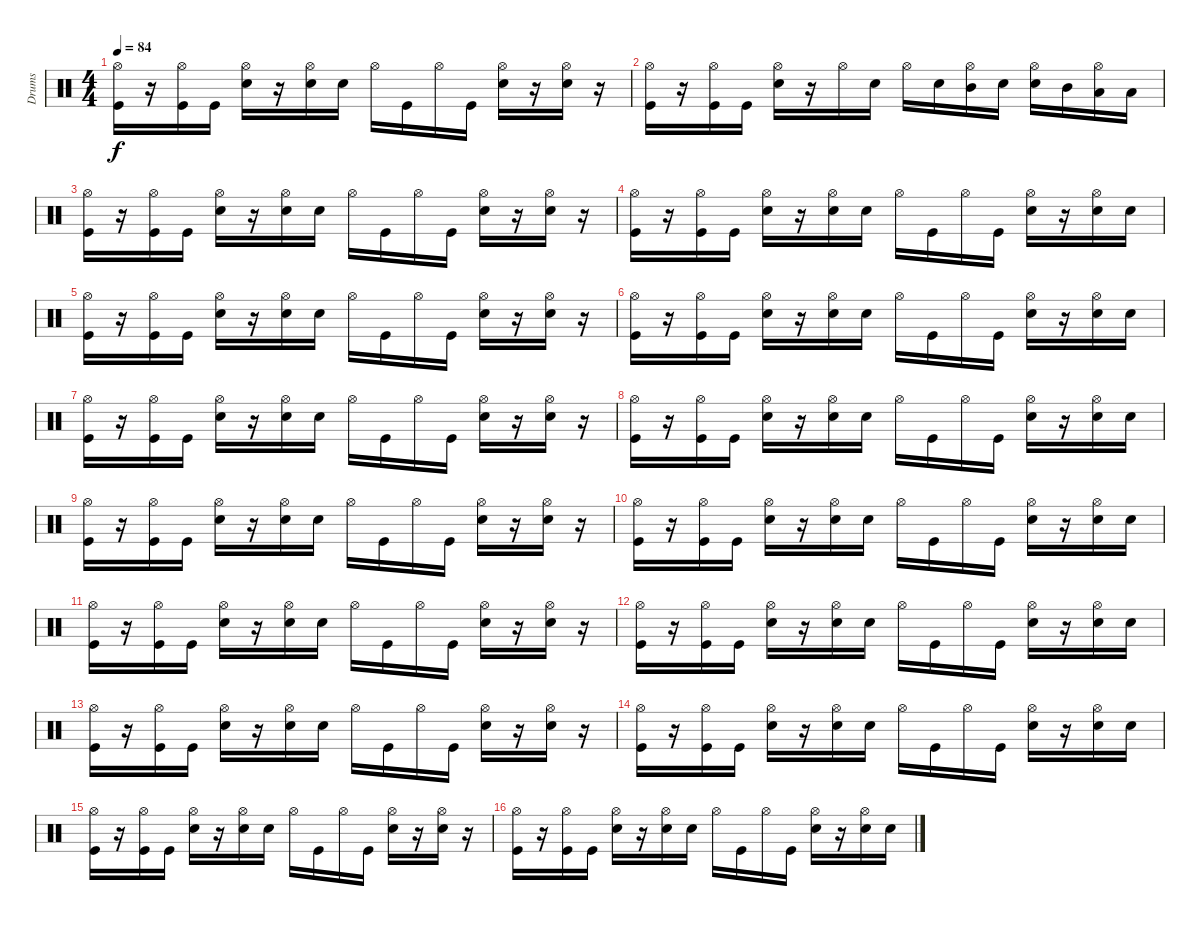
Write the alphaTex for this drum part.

\track ("Drums" "Drums") {instrument percussion}
\staff {score}
\articulation defaults
\ts (4 4)
\tempo 84
\clef neutral
\ks c
("Hi-Hat (open)" "Kick (hit)").16{dy f} r.16 ("Hi-Hat (open)" "Kick (hit)").16 "Kick (hit)".16 ("Hi-Hat (open)" "Snare (hit) 2").16 r.16 ("Hi-Hat (open)" "Snare (hit) 2").16 "Snare (hit) 2".16 "Hi-Hat (open)".16 "Kick (hit)".16 "Hi-Hat (open)".16 "Kick (hit)".16 ("Hi-Hat (open)" "Snare (hit) 2").16 r.16 ("Hi-Hat (open)" "Snare (hit) 2").16 r.16 |
("Hi-Hat (open)" "Kick (hit)").16 r.16 ("Hi-Hat (open)" "Kick (hit)").16 "Kick (hit)".16 ("Hi-Hat (open)" "Snare (hit) 2").16 r.16 "Hi-Hat (open)".16 "Snare (hit) 2".16 "Hi-Hat (open)".16 "Snare (hit) 2".16 ("Hi-Hat (open)" "Mid Tom (hit)").16 "Snare (hit) 2".16 ("Hi-Hat (open)" "Snare (hit) 2").16 "Mid Tom (hit)".16 ("Hi-Hat (open)" "Low Tom (hit)").16 "Low Floor Tom (hit)".16 |
("Hi-Hat (open)" "Kick (hit)").16 r.16 ("Hi-Hat (open)" "Kick (hit)").16 "Kick (hit)".16 ("Hi-Hat (open)" "Snare (hit) 2").16 r.16 ("Hi-Hat (open)" "Snare (hit) 2").16 "Snare (hit) 2".16 "Hi-Hat (open)".16 "Kick (hit)".16 "Hi-Hat (open)".16 "Kick (hit)".16 ("Hi-Hat (open)" "Snare (hit) 2").16 r.16 ("Hi-Hat (open)" "Snare (hit) 2").16 r.16 |
("Hi-Hat (open)" "Kick (hit)").16 r.16 ("Hi-Hat (open)" "Kick (hit)").16 "Kick (hit)".16 ("Hi-Hat (open)" "Snare (hit) 2").16 r.16 ("Hi-Hat (open)" "Snare (hit) 2").16 "Snare (hit) 2".16 "Hi-Hat (open)".16 "Kick (hit)".16 "Hi-Hat (open)".16 "Kick (hit)".16 ("Hi-Hat (open)" "Snare (hit) 2").16 r.16 ("Hi-Hat (open)" "Snare (hit) 2").16 "Snare (hit) 2".16 |
("Hi-Hat (open)" "Kick (hit)").16 r.16 ("Hi-Hat (open)" "Kick (hit)").16 "Kick (hit)".16 ("Hi-Hat (open)" "Snare (hit) 2").16 r.16 ("Hi-Hat (open)" "Snare (hit) 2").16 "Snare (hit) 2".16 "Hi-Hat (open)".16 "Kick (hit)".16 "Hi-Hat (open)".16 "Kick (hit)".16 ("Hi-Hat (open)" "Snare (hit) 2").16 r.16 ("Hi-Hat (open)" "Snare (hit) 2").16 r.16 |
("Hi-Hat (open)" "Kick (hit)").16 r.16 ("Hi-Hat (open)" "Kick (hit)").16 "Kick (hit)".16 ("Hi-Hat (open)" "Snare (hit) 2").16 r.16 ("Hi-Hat (open)" "Snare (hit) 2").16 "Snare (hit) 2".16 "Hi-Hat (open)".16 "Kick (hit)".16 "Hi-Hat (open)".16 "Kick (hit)".16 ("Hi-Hat (open)" "Snare (hit) 2").16 r.16 ("Hi-Hat (open)" "Snare (hit) 2").16 "Snare (hit) 2".16 |
("Hi-Hat (open)" "Kick (hit)").16 r.16 ("Hi-Hat (open)" "Kick (hit)").16 "Kick (hit)".16 ("Hi-Hat (open)" "Snare (hit) 2").16 r.16 ("Hi-Hat (open)" "Snare (hit) 2").16 "Snare (hit) 2".16 "Hi-Hat (open)".16 "Kick (hit)".16 "Hi-Hat (open)".16 "Kick (hit)".16 ("Hi-Hat (open)" "Snare (hit) 2").16 r.16 ("Hi-Hat (open)" "Snare (hit) 2").16 r.16 |
("Hi-Hat (open)" "Kick (hit)").16 r.16 ("Hi-Hat (open)" "Kick (hit)").16 "Kick (hit)".16 ("Hi-Hat (open)" "Snare (hit) 2").16 r.16 ("Hi-Hat (open)" "Snare (hit) 2").16 "Snare (hit) 2".16 "Hi-Hat (open)".16 "Kick (hit)".16 "Hi-Hat (open)".16 "Kick (hit)".16 ("Hi-Hat (open)" "Snare (hit) 2").16 r.16 ("Hi-Hat (open)" "Snare (hit) 2").16 "Snare (hit) 2".16 |
("Hi-Hat (open)" "Kick (hit)").16 r.16 ("Hi-Hat (open)" "Kick (hit)").16 "Kick (hit)".16 ("Hi-Hat (open)" "Snare (hit) 2").16 r.16 ("Hi-Hat (open)" "Snare (hit) 2").16 "Snare (hit) 2".16 "Hi-Hat (open)".16 "Kick (hit)".16 "Hi-Hat (open)".16 "Kick (hit)".16 ("Hi-Hat (open)" "Snare (hit) 2").16 r.16 ("Hi-Hat (open)" "Snare (hit) 2").16 r.16 |
("Hi-Hat (open)" "Kick (hit)").16 r.16 ("Hi-Hat (open)" "Kick (hit)").16 "Kick (hit)".16 ("Hi-Hat (open)" "Snare (hit) 2").16 r.16 ("Hi-Hat (open)" "Snare (hit) 2").16 "Snare (hit) 2".16 "Hi-Hat (open)".16 "Kick (hit)".16 "Hi-Hat (open)".16 "Kick (hit)".16 ("Hi-Hat (open)" "Snare (hit) 2").16 r.16 ("Hi-Hat (open)" "Snare (hit) 2").16 "Snare (hit) 2".16 |
("Hi-Hat (open)" "Kick (hit)").16 r.16 ("Hi-Hat (open)" "Kick (hit)").16 "Kick (hit)".16 ("Hi-Hat (open)" "Snare (hit) 2").16 r.16 ("Hi-Hat (open)" "Snare (hit) 2").16 "Snare (hit) 2".16 "Hi-Hat (open)".16 "Kick (hit)".16 "Hi-Hat (open)".16 "Kick (hit)".16 ("Hi-Hat (open)" "Snare (hit) 2").16 r.16 ("Hi-Hat (open)" "Snare (hit) 2").16 r.16 |
("Hi-Hat (open)" "Kick (hit)").16 r.16 ("Hi-Hat (open)" "Kick (hit)").16 "Kick (hit)".16 ("Hi-Hat (open)" "Snare (hit) 2").16 r.16 ("Hi-Hat (open)" "Snare (hit) 2").16 "Snare (hit) 2".16 "Hi-Hat (open)".16 "Kick (hit)".16 "Hi-Hat (open)".16 "Kick (hit)".16 ("Hi-Hat (open)" "Snare (hit) 2").16 r.16 ("Hi-Hat (open)" "Snare (hit) 2").16 "Snare (hit) 2".16 |
("Hi-Hat (open)" "Kick (hit)").16 r.16 ("Hi-Hat (open)" "Kick (hit)").16 "Kick (hit)".16 ("Hi-Hat (open)" "Snare (hit) 2").16 r.16 ("Hi-Hat (open)" "Snare (hit) 2").16 "Snare (hit) 2".16 "Hi-Hat (open)".16 "Kick (hit)".16 "Hi-Hat (open)".16 "Kick (hit)".16 ("Hi-Hat (open)" "Snare (hit) 2").16 r.16 ("Hi-Hat (open)" "Snare (hit) 2").16 r.16 |
("Hi-Hat (open)" "Kick (hit)").16 r.16 ("Hi-Hat (open)" "Kick (hit)").16 "Kick (hit)".16 ("Hi-Hat (open)" "Snare (hit) 2").16 r.16 ("Hi-Hat (open)" "Snare (hit) 2").16 "Snare (hit) 2".16 "Hi-Hat (open)".16 "Kick (hit)".16 "Hi-Hat (open)".16 "Kick (hit)".16 ("Hi-Hat (open)" "Snare (hit) 2").16 r.16 ("Hi-Hat (open)" "Snare (hit) 2").16 "Snare (hit) 2".16 |
("Hi-Hat (open)" "Kick (hit)").16 r.16 ("Hi-Hat (open)" "Kick (hit)").16 "Kick (hit)".16 ("Hi-Hat (open)" "Snare (hit) 2").16 r.16 ("Hi-Hat (open)" "Snare (hit) 2").16 "Snare (hit) 2".16 "Hi-Hat (open)".16 "Kick (hit)".16 "Hi-Hat (open)".16 "Kick (hit)".16 ("Hi-Hat (open)" "Snare (hit) 2").16 r.16 ("Hi-Hat (open)" "Snare (hit) 2").16 r.16 |
("Hi-Hat (open)" "Kick (hit)").16 r.16 ("Hi-Hat (open)" "Kick (hit)").16 "Kick (hit)".16 ("Hi-Hat (open)" "Snare (hit) 2").16 r.16 ("Hi-Hat (open)" "Snare (hit) 2").16 "Snare (hit) 2".16 "Hi-Hat (open)".16 "Kick (hit)".16 "Hi-Hat (open)".16 "Kick (hit)".16 ("Hi-Hat (open)" "Snare (hit) 2").16 r.16 ("Hi-Hat (open)" "Snare (hit) 2").16 "Snare (hit) 2".16
